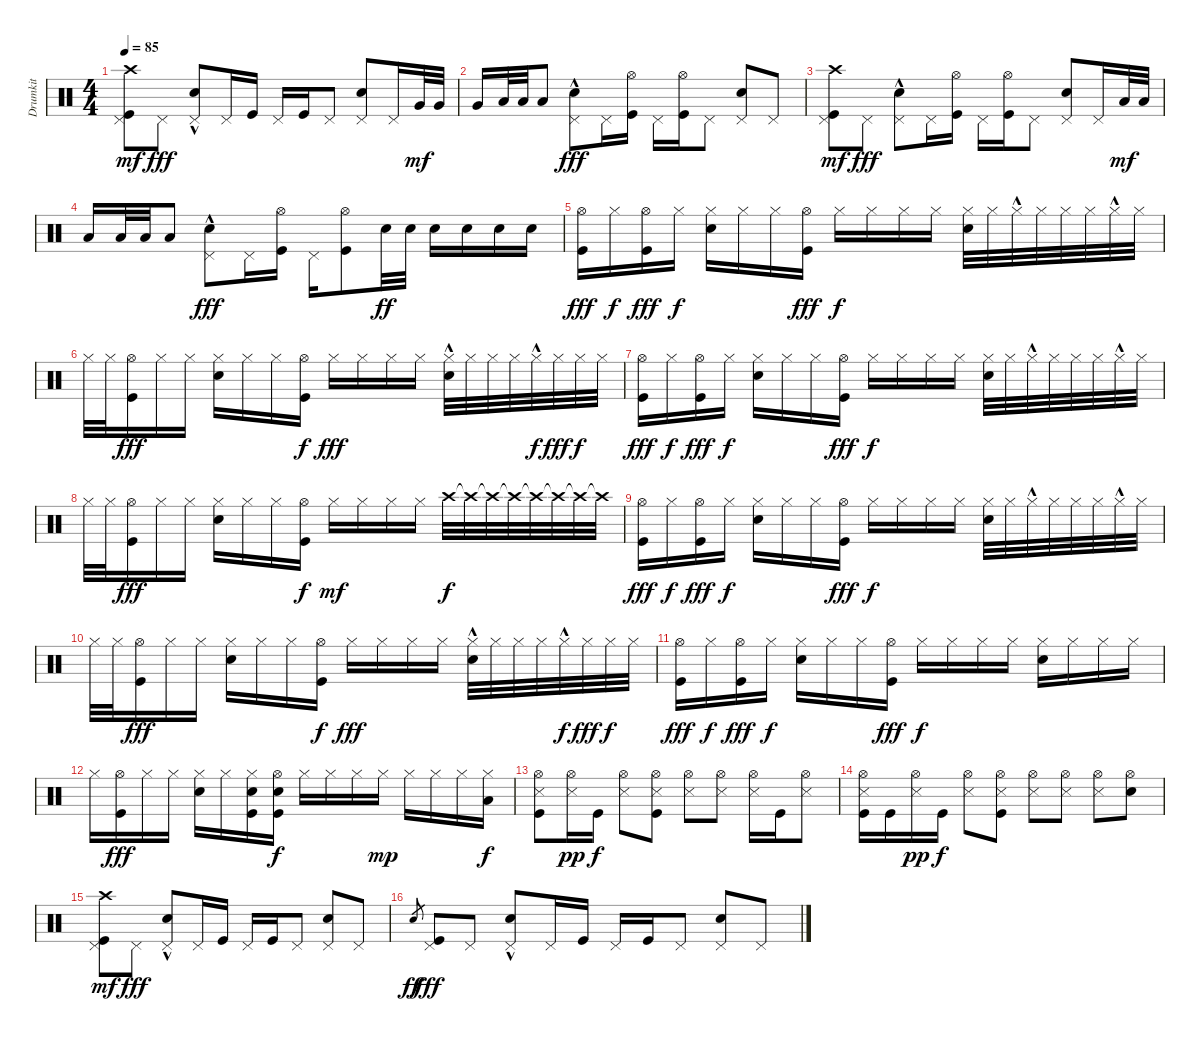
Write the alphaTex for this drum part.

\track ("Drumkit" "Drumkit") {instrument percussion}
\staff {score}
\articulation defaults
\ts (4 4)
\tempo 85
\clef neutral
\ks c
("Kick (hit)" "Pedal Hi-Hat (hit)" "Crash high (hit)").8{dy mf} "Pedal Hi-Hat (hit)".8{dy fff} ("Pedal Hi-Hat (hit)" "Snare (hit) 2"{hac}).8 "Pedal Hi-Hat (hit)".16 "Kick (hit)".16 "Pedal Hi-Hat (hit)".16 "Kick (hit)".16 "Pedal Hi-Hat (hit)".8 ("Snare (hit) 2" "Pedal Hi-Hat (hit)").8 "Pedal Hi-Hat (hit)".16 "Very Low Tom (hit)".32{dy mf} "Very Low Tom (hit)".32 |
"Very Low Tom (hit)".16 "Low Floor Tom (hit)".32 "Low Floor Tom (hit)".32 "Low Floor Tom (hit)".8 ("Pedal Hi-Hat (hit)" "Snare (hit) 2"{hac}).8{dy fff} "Pedal Hi-Hat (hit)".16 ("Kick (hit)" "Hi-Hat (open)").16 "Pedal Hi-Hat (hit)".16 ("Kick (hit)" "Hi-Hat (open)").16 "Pedal Hi-Hat (hit)".8 ("Snare (hit) 2" "Pedal Hi-Hat (hit)").8 "Pedal Hi-Hat (hit)".8 |
("Kick (hit)" "Pedal Hi-Hat (hit)" "Crash high (hit)").8{dy mf} "Pedal Hi-Hat (hit)".8{dy fff} ("Pedal Hi-Hat (hit)" "Snare (hit) 2"{hac}).8 "Pedal Hi-Hat (hit)".16 ("Kick (hit)" "Hi-Hat (open)").16 "Pedal Hi-Hat (hit)".16 ("Kick (hit)" "Hi-Hat (open)").16 "Pedal Hi-Hat (hit)".8 ("Snare (hit) 2" "Pedal Hi-Hat (hit)").8 "Pedal Hi-Hat (hit)".16 "Low Floor Tom (hit)".32{dy mf} "Low Floor Tom (hit)".32 |
"Low Floor Tom (hit)".16 "Low Floor Tom (hit)".32 "Low Floor Tom (hit)".32 "Low Floor Tom (hit)".8 ("Pedal Hi-Hat (hit)" "Snare (hit) 2"{hac}).8{dy fff} "Pedal Hi-Hat (hit)".16 ("Kick (hit)" "Hi-Hat (open)").16 "Pedal Hi-Hat (hit)".16 ("Kick (hit)" "Hi-Hat (open)").8 "Snare (hit) 2".32{dy ff} "Snare (hit) 2".32 "Snare (hit) 2".16 "Snare (hit) 2".16 "Snare (hit) 2".16 "Snare (hit) 2".16 |
("Kick (hit)" "Hi-Hat (open)").16{dy fff} "Hi-Hat (closed)".16{dy f} ("Kick (hit)" "Hi-Hat (open)").16{dy fff} "Hi-Hat (closed)".16{dy f} ("Hi-Hat (closed)" "Snare (hit) 2").16 "Hi-Hat (closed)".16 "Hi-Hat (closed)".16 ("Kick (hit)" "Hi-Hat (open)").16{dy fff} "Hi-Hat (closed)".16{dy f} "Hi-Hat (closed)".16 "Hi-Hat (closed)".16 "Hi-Hat (closed)".16 ("Hi-Hat (closed)" "Snare (hit) 2").32 "Hi-Hat (closed)".32 "Hi-Hat (closed)"{hac}.32 "Hi-Hat (closed)".32 "Hi-Hat (closed)".32 "Hi-Hat (closed)".32 "Hi-Hat (closed)"{hac}.32 "Hi-Hat (closed)".32 |
"Hi-Hat (closed)".32 "Hi-Hat (closed)".32 ("Kick (hit)" "Hi-Hat (open)").16{dy fff} "Hi-Hat (closed)".16 "Hi-Hat (closed)".16 ("Hi-Hat (closed)" "Snare (hit) 2").16 "Hi-Hat (closed)".16 "Hi-Hat (closed)".16 ("Hi-Hat (open)" "Kick (hit)").16{dy f} "Hi-Hat (closed)".16{dy fff} "Hi-Hat (closed)".16 "Hi-Hat (closed)".16 "Hi-Hat (closed)".16 ("Hi-Hat (closed)"{hac} "Snare (hit) 2").32 "Hi-Hat (closed)".32 "Hi-Hat (closed)".32 "Hi-Hat (closed)".32 "Hi-Hat (closed)"{hac}.32{dy f} "Hi-Hat (closed)".32{dy fff} "Hi-Hat (closed)".32{dy f} "Hi-Hat (closed)".32 |
("Kick (hit)" "Hi-Hat (open)").16{dy fff} "Hi-Hat (closed)".16{dy f} ("Kick (hit)" "Hi-Hat (open)").16{dy fff} "Hi-Hat (closed)".16{dy f} ("Hi-Hat (closed)" "Snare (hit) 2").16 "Hi-Hat (closed)".16 "Hi-Hat (closed)".16 ("Kick (hit)" "Hi-Hat (open)").16{dy fff} "Hi-Hat (closed)".16{dy f} "Hi-Hat (closed)".16 "Hi-Hat (closed)".16 "Hi-Hat (closed)".16 ("Hi-Hat (closed)" "Snare (hit) 2").32 "Hi-Hat (closed)".32 "Hi-Hat (closed)"{hac}.32 "Hi-Hat (closed)".32 "Hi-Hat (closed)".32 "Hi-Hat (closed)".32 "Hi-Hat (closed)"{hac}.32 "Hi-Hat (closed)".32 |
"Hi-Hat (closed)".32 "Hi-Hat (closed)".32 ("Kick (hit)" "Hi-Hat (open)").16{dy fff} "Hi-Hat (closed)".16 "Hi-Hat (closed)".16 ("Hi-Hat (closed)" "Snare (hit) 2").16 "Hi-Hat (closed)".16 "Hi-Hat (closed)".16 ("Hi-Hat (open)" "Kick (hit)").16{dy f} "Hi-Hat (closed)".16{dy mf} "Hi-Hat (closed)".16 "Hi-Hat (closed)".16 "Hi-Hat (closed)".16 "Crash high (hit)".32{dy f} "Crash high (hit)"{t}.32 "Crash high (hit)"{t}.32 "Crash high (hit)"{t}.32 "Crash high (hit)"{t}.32 "Crash high (hit)"{t}.32 "Crash high (hit)"{t}.32 "Crash high (hit)"{t}.32 |
("Kick (hit)" "Hi-Hat (open)").16{dy fff} "Hi-Hat (closed)".16{dy f} ("Kick (hit)" "Hi-Hat (open)").16{dy fff} "Hi-Hat (closed)".16{dy f} ("Hi-Hat (closed)" "Snare (hit) 2").16 "Hi-Hat (closed)".16 "Hi-Hat (closed)".16 ("Kick (hit)" "Hi-Hat (open)").16{dy fff} "Hi-Hat (closed)".16{dy f} "Hi-Hat (closed)".16 "Hi-Hat (closed)".16 "Hi-Hat (closed)".16 ("Hi-Hat (closed)" "Snare (hit) 2").32 "Hi-Hat (closed)".32 "Hi-Hat (closed)"{hac}.32 "Hi-Hat (closed)".32 "Hi-Hat (closed)".32 "Hi-Hat (closed)".32 "Hi-Hat (closed)"{hac}.32 "Hi-Hat (closed)".32 |
"Hi-Hat (closed)".32 "Hi-Hat (closed)".32 ("Kick (hit)" "Hi-Hat (open)").16{dy fff} "Hi-Hat (closed)".16 "Hi-Hat (closed)".16 ("Hi-Hat (closed)" "Snare (hit) 2").16 "Hi-Hat (closed)".16 "Hi-Hat (closed)".16 ("Hi-Hat (open)" "Kick (hit)").16{dy f} "Hi-Hat (closed)".16{dy fff} "Hi-Hat (closed)".16 "Hi-Hat (closed)".16 "Hi-Hat (closed)".16 ("Hi-Hat (closed)"{hac} "Snare (hit) 2").32 "Hi-Hat (closed)".32 "Hi-Hat (closed)".32 "Hi-Hat (closed)".32 "Hi-Hat (closed)"{hac}.32{dy f} "Hi-Hat (closed)".32{dy fff} "Hi-Hat (closed)".32{dy f} "Hi-Hat (closed)".32 |
("Kick (hit)" "Hi-Hat (open)").16{dy fff} "Hi-Hat (closed)".16{dy f} ("Kick (hit)" "Hi-Hat (open)").16{dy fff} "Hi-Hat (closed)".16{dy f} ("Hi-Hat (closed)" "Snare (hit) 2").16 "Hi-Hat (closed)".16 "Hi-Hat (closed)".16 ("Kick (hit)" "Hi-Hat (open)").16{dy fff} "Hi-Hat (closed)".16{dy f} "Hi-Hat (closed)".16 "Hi-Hat (closed)".16 "Hi-Hat (closed)".16 ("Hi-Hat (closed)" "Snare (hit) 2").16 "Hi-Hat (closed)".16 "Hi-Hat (closed)".16 "Hi-Hat (closed)".16 |
"Hi-Hat (closed)".16 ("Kick (hit)" "Hi-Hat (open)").16{dy fff} "Hi-Hat (closed)".16 "Hi-Hat (closed)".16 ("Hi-Hat (closed)" "Snare (hit) 2").16 "Hi-Hat (closed)".16 ("Hi-Hat (closed)" "Snare (hit) 2" "Kick (hit)").16 ("Hi-Hat (open)" "Kick (hit)" "Snare (hit) 2").16{dy f} "Hi-Hat (closed)".16 "Hi-Hat (closed)".16 "Hi-Hat (closed)".16 "Hi-Hat (closed)".16{dy mp} "Hi-Hat (closed)".16 "Hi-Hat (closed)".16 "Hi-Hat (closed)".16 ("Hi-Hat (closed)" "Low Floor Tom (hit)").16{dy f} |
("Snare (side stick) 3" "Kick (hit)" "Hi-Hat (open)").8 ("Snare (side stick) 3" "Hi-Hat (open)").16{dy pp} "Kick (hit)".16{dy f} ("Snare (side stick) 3" "Hi-Hat (open)").8 ("Snare (side stick) 3" "Hi-Hat (open)" "Kick (hit)").8 ("Snare (side stick) 3" "Hi-Hat (open)").8 ("Snare (side stick) 3" "Hi-Hat (open)").8 ("Snare (side stick) 3" "Hi-Hat (open)").16 "Kick (hit)".16 ("Snare (side stick) 3" "Hi-Hat (open)").8 |
("Snare (side stick) 3" "Kick (hit)" "Hi-Hat (open)").16 "Kick (hit)".16 ("Snare (side stick) 3" "Hi-Hat (open)").16{dy pp} "Kick (hit)".16{dy f} ("Snare (side stick) 3" "Hi-Hat (open)").8 ("Snare (side stick) 3" "Hi-Hat (open)" "Kick (hit)").8 ("Snare (side stick) 3" "Hi-Hat (open)").8 ("Snare (side stick) 3" "Hi-Hat (open)").8 ("Snare (side stick) 3" "Hi-Hat (open)").8 ("Snare (hit) 2" "Hi-Hat (open)").8 |
("Kick (hit)" "Pedal Hi-Hat (hit)" "Crash high (hit)").8{dy mf} "Pedal Hi-Hat (hit)".8{dy fff} ("Pedal Hi-Hat (hit)" "Snare (hit) 2"{hac}).8 "Pedal Hi-Hat (hit)".16 "Kick (hit)".16 "Pedal Hi-Hat (hit)".16 "Kick (hit)".16 "Pedal Hi-Hat (hit)".8 ("Snare (hit) 2" "Pedal Hi-Hat (hit)").8 "Pedal Hi-Hat (hit)".8 |
"Snare (hit)".8{gr dy ff} ("Kick (hit)" "Pedal Hi-Hat (hit)").8{dy fff} "Pedal Hi-Hat (hit)".8 ("Pedal Hi-Hat (hit)" "Snare (hit) 2"{hac}).8 "Pedal Hi-Hat (hit)".16 "Kick (hit)".16 "Pedal Hi-Hat (hit)".16 "Kick (hit)".16 "Pedal Hi-Hat (hit)".8 ("Snare (hit) 2" "Pedal Hi-Hat (hit)").8 "Pedal Hi-Hat (hit)".8
